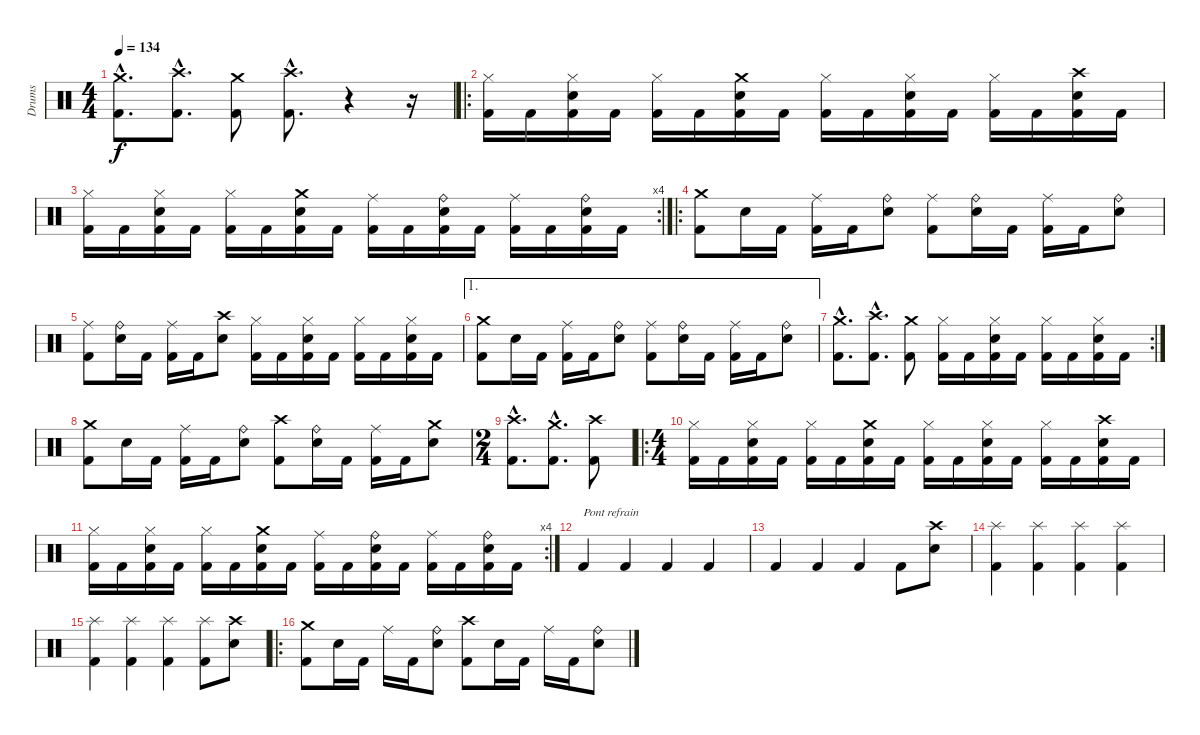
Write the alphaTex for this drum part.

\track ("Drums" "Drums") {instrument percussion}
\staff {score}
\articulation defaults
\ts (4 4)
\tempo 134
\clef neutral
\ks c
("Crash medium (hit)"{hac} "Kick (hit) 2"{hac}).8{d dy f} ("Crash high (hit)"{hac} "Kick (hit) 2"{hac}).8{d} ("Crash medium (hit)" "Kick (hit) 2").8 ("Crash high (hit)"{hac} "Kick (hit) 2"{hac}).8{d} r.4 r.16 |
\ro
("Hi-Hat (closed)" "Kick (hit) 2").16 "Kick (hit) 2".16 ("Hi-Hat (closed)" "Electric Snare (hit)" "Kick (hit) 2").16 "Kick (hit) 2".16 ("Hi-Hat (closed)" "Kick (hit) 2").16 "Kick (hit) 2".16 ("Crash medium (hit)" "Electric Snare (hit)" "Kick (hit) 2").16 "Kick (hit) 2".16 ("Hi-Hat (closed)" "Kick (hit) 2").16 "Kick (hit) 2".16 ("Hi-Hat (closed)" "Electric Snare (hit)" "Kick (hit) 2").16 "Kick (hit) 2".16 ("Hi-Hat (closed)" "Kick (hit) 2").16 "Kick (hit) 2".16 ("Crash high (hit)" "Electric Snare (hit)" "Kick (hit) 2").16 "Kick (hit) 2".16 |
\rc 4
("Hi-Hat (closed)" "Kick (hit) 2").16 "Kick (hit) 2".16 ("Hi-Hat (closed)" "Electric Snare (hit)" "Kick (hit) 2").16 "Kick (hit) 2".16 ("Hi-Hat (closed)" "Kick (hit) 2").16 "Kick (hit) 2".16 ("Crash medium (hit)" "Electric Snare (hit)" "Kick (hit) 2").16 "Kick (hit) 2".16 ("Ride (middle)" "Kick (hit) 2").16 "Kick (hit) 2".16 ("Ride (bell)" "Electric Snare (hit)" "Kick (hit) 2").16 "Kick (hit) 2".16 ("Ride (middle)" "Kick (hit) 2").16 "Kick (hit) 2".16 ("Ride (bell)" "Electric Snare (hit)" "Kick (hit) 2").16 "Kick (hit) 2".16 |
\ro
("Crash medium (hit)" "Kick (hit) 2").8 "Electric Snare (hit)".16 "Kick (hit) 2".16 ("Ride (middle)" "Kick (hit) 2").16 "Kick (hit) 2".16 ("Ride (bell)" "Electric Snare (hit)").8 ("Ride (middle)" "Kick (hit) 2").8 ("Ride (bell)" "Electric Snare (hit)").16 "Kick (hit) 2".16 ("Ride (middle)" "Kick (hit) 2").16 "Kick (hit) 2".16 ("Ride (bell)" "Electric Snare (hit)").8 |
("Ride (middle)" "Kick (hit) 2").8 ("Ride (bell)" "Electric Snare (hit)").16 "Kick (hit) 2".16 ("Ride (middle)" "Kick (hit) 2").16 "Kick (hit) 2".16 ("Crash high (hit)" "Electric Snare (hit)").8 ("Hi-Hat (closed)" "Kick (hit) 2").16 "Kick (hit) 2".16 ("Hi-Hat (closed)" "Electric Snare (hit)" "Kick (hit) 2").16 "Kick (hit) 2".16 ("Hi-Hat (closed)" "Kick (hit) 2").16 "Kick (hit) 2".16 ("Hi-Hat (closed)" "Electric Snare (hit)" "Kick (hit) 2").16 "Kick (hit) 2".16 |
\ae 1
("Crash medium (hit)" "Kick (hit) 2").8 "Electric Snare (hit)".16 "Kick (hit) 2".16 ("Ride (middle)" "Kick (hit) 2").16 "Kick (hit) 2".16 ("Ride (bell)" "Electric Snare (hit)").8 ("Ride (middle)" "Kick (hit) 2").8 ("Ride (bell)" "Electric Snare (hit)").16 "Kick (hit) 2".16 ("Ride (middle)" "Kick (hit) 2").16 "Kick (hit) 2".16 ("Ride (bell)" "Electric Snare (hit)").8 |
\rc 2
("Crash medium (hit)"{hac} "Kick (hit) 2"{hac}).8{d} ("Crash high (hit)"{hac} "Kick (hit) 2"{hac}).8{d} ("Crash medium (hit)" "Kick (hit) 2").8 ("Hi-Hat (closed)" "Kick (hit) 2").16 "Kick (hit) 2".16 ("Hi-Hat (closed)" "Electric Snare (hit)" "Kick (hit) 2").16 "Kick (hit) 2".16 ("Hi-Hat (closed)" "Kick (hit) 2").16 "Kick (hit) 2".16 ("Hi-Hat (closed)" "Electric Snare (hit)" "Kick (hit) 2").16 "Kick (hit) 2".16 |
("Crash medium (hit)" "Kick (hit) 2").8 "Electric Snare (hit)".16 "Kick (hit) 2".16 ("Ride (middle)" "Kick (hit) 2").16 "Kick (hit) 2".16 ("Ride (bell)" "Electric Snare (hit)").8 ("Crash high (hit)" "Kick (hit) 2").8 ("Ride (bell)" "Electric Snare (hit)").16 "Kick (hit) 2".16 ("Ride (middle)" "Kick (hit) 2").16 "Kick (hit) 2".16 ("Crash medium (hit)" "Electric Snare (hit)").8 |
\ts (2 4)
("Crash high (hit)"{hac} "Kick (hit) 2"{hac}).8{d} ("Crash medium (hit)"{hac} "Kick (hit) 2"{hac}).8{d} ("Crash high (hit)" "Kick (hit) 2").8 |
\ro
\ts (4 4)
("Hi-Hat (closed)" "Kick (hit) 2").16 "Kick (hit) 2".16 ("Hi-Hat (closed)" "Electric Snare (hit)" "Kick (hit) 2").16 "Kick (hit) 2".16 ("Hi-Hat (closed)" "Kick (hit) 2").16 "Kick (hit) 2".16 ("Crash medium (hit)" "Electric Snare (hit)" "Kick (hit) 2").16 "Kick (hit) 2".16 ("Hi-Hat (closed)" "Kick (hit) 2").16 "Kick (hit) 2".16 ("Hi-Hat (closed)" "Electric Snare (hit)" "Kick (hit) 2").16 "Kick (hit) 2".16 ("Hi-Hat (closed)" "Kick (hit) 2").16 "Kick (hit) 2".16 ("Crash high (hit)" "Electric Snare (hit)" "Kick (hit) 2").16 "Kick (hit) 2".16 |
\rc 4
("Hi-Hat (closed)" "Kick (hit) 2").16 "Kick (hit) 2".16 ("Hi-Hat (closed)" "Electric Snare (hit)" "Kick (hit) 2").16 "Kick (hit) 2".16 ("Hi-Hat (closed)" "Kick (hit) 2").16 "Kick (hit) 2".16 ("Crash medium (hit)" "Electric Snare (hit)" "Kick (hit) 2").16 "Kick (hit) 2".16 ("Ride (middle)" "Kick (hit) 2").16 "Kick (hit) 2".16 ("Ride (bell)" "Electric Snare (hit)" "Kick (hit) 2").16 "Kick (hit) 2".16 ("Ride (middle)" "Kick (hit) 2").16 "Kick (hit) 2".16 ("Ride (bell)" "Electric Snare (hit)" "Kick (hit) 2").16 "Kick (hit) 2".16 |
"Kick (hit) 2".4{txt "Pont refrain"} "Kick (hit) 2".4 "Kick (hit) 2".4 "Kick (hit) 2".4 |
"Kick (hit) 2".4 "Kick (hit) 2".4 "Kick (hit) 2".4 "Kick (hit) 2".8 ("Crash high (hit)" "Electric Snare (hit)").8 |
("Splash (hit)" "Kick (hit) 2").4 ("Splash (hit)" "Kick (hit) 2").4 ("Splash (hit)" "Kick (hit) 2").4 ("Splash (hit)" "Kick (hit) 2").4 |
("Splash (hit)" "Kick (hit) 2").4 ("Splash (hit)" "Kick (hit) 2").4 ("Splash (hit)" "Kick (hit) 2").4 ("Splash (hit)" "Kick (hit) 2").8 ("Crash high (hit)" "Electric Snare (hit)").8 |
\ro
("Crash medium (hit)" "Kick (hit) 2").8 "Electric Snare (hit)".16 "Kick (hit) 2".16 "Ride (middle)".16 "Kick (hit) 2".16 ("Ride (bell)" "Electric Snare (hit)").8 ("Crash high (hit)" "Kick (hit) 2").8 "Electric Snare (hit)".16 "Kick (hit) 2".16 "Ride (middle)".16 "Kick (hit) 2".16 ("Ride (bell)" "Electric Snare (hit)").8
